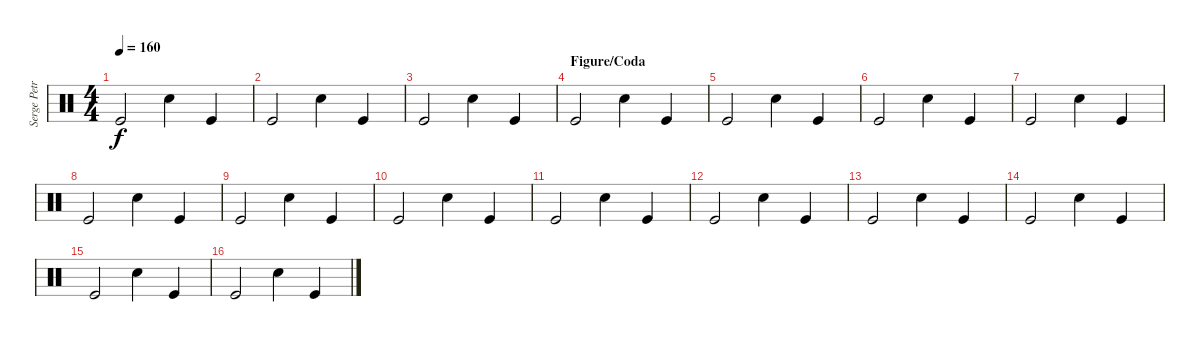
\track ("Serge Petrone" "Serge Petr") {instrument percussion}
\staff {score}
\articulation defaults
\ts (4 4)
\tempo 160
\clef neutral
\ks c "Kick (hit)".2{dy f} "Snare (hit) 2".4 "Kick (hit)".4
|
"Kick (hit)".2 "Snare (hit) 2".4 "Kick (hit)".4 |
"Kick (hit)".2 "Snare (hit) 2".4 "Kick (hit)".4 |
\section ("" "Figure/Coda")
"Kick (hit)".2 "Snare (hit) 2".4 "Kick (hit)".4 |
"Kick (hit)".2 "Snare (hit) 2".4 "Kick (hit)".4 |
"Kick (hit)".2 "Snare (hit) 2".4 "Kick (hit)".4 |
"Kick (hit)".2 "Snare (hit) 2".4 "Kick (hit)".4 |
"Kick (hit)".2 "Snare (hit) 2".4 "Kick (hit)".4 |
"Kick (hit)".2 "Snare (hit) 2".4 "Kick (hit)".4 |
"Kick (hit)".2 "Snare (hit) 2".4 "Kick (hit)".4 |
"Kick (hit)".2 "Snare (hit) 2".4 "Kick (hit)".4 |
"Kick (hit)".2 "Snare (hit) 2".4 "Kick (hit)".4 |
"Kick (hit)".2 "Snare (hit) 2".4 "Kick (hit)".4 |
"Kick (hit)".2 "Snare (hit) 2".4 "Kick (hit)".4 |
"Kick (hit)".2 "Snare (hit) 2".4 "Kick (hit)".4 |
"Kick (hit)".2 "Snare (hit) 2".4 "Kick (hit)".4
